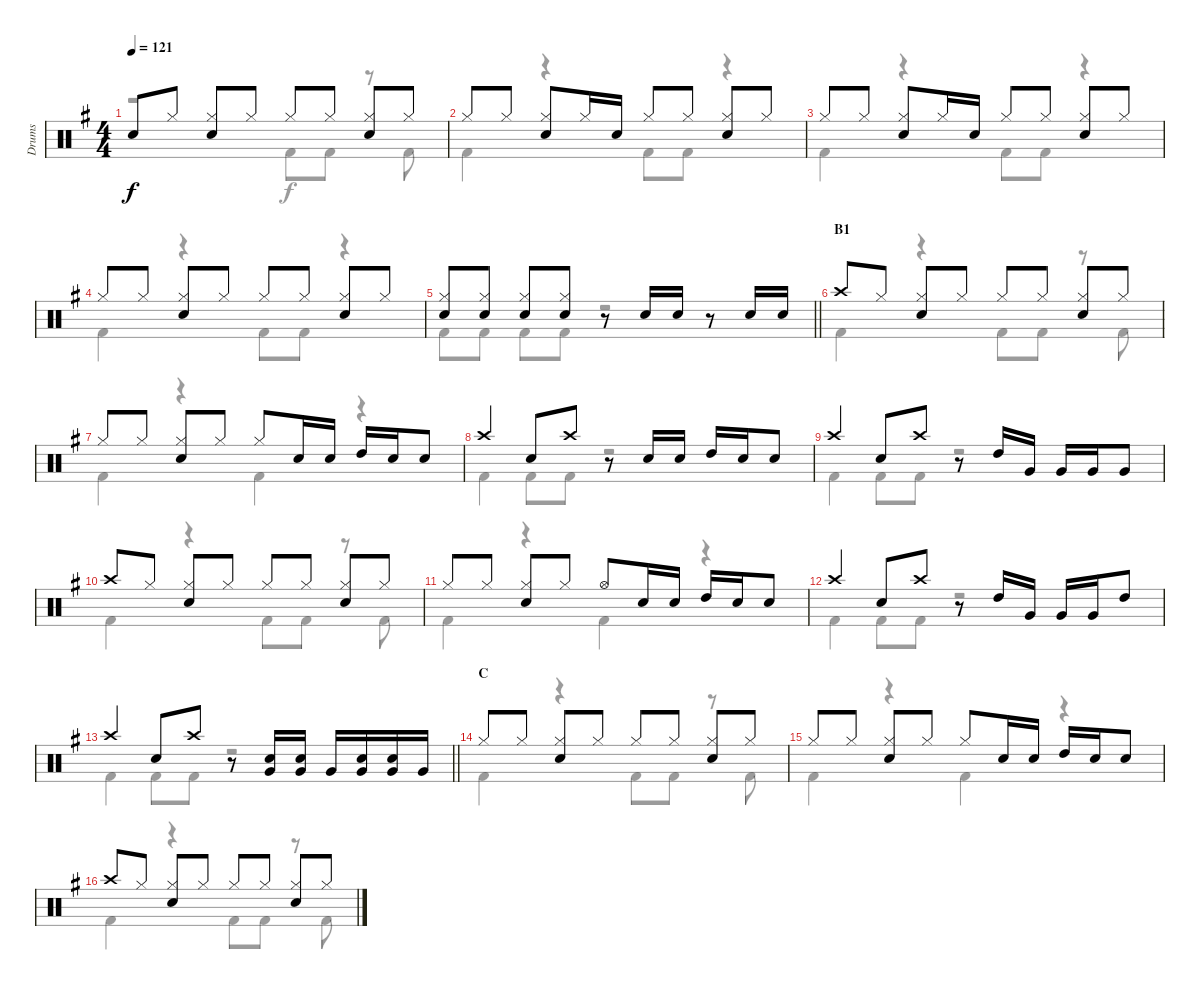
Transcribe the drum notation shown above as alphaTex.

\track ("Drums" "Drums") {instrument percussion}
\staff {score}
\articulation defaults
\voice
\ts (4 4)
\tempo 121
\clef neutral
\ks g "Snare (hit)"{t}.8{dy f} "Hi-Hat (closed)".8
("Hi-Hat (closed)" "Snare (hit) 2").8 "Hi-Hat (closed)".8 "Hi-Hat (closed)".8 "Hi-Hat (closed)".8 ("Hi-Hat (closed)" "Snare (hit) 2").8 "Hi-Hat (closed)".8 |
"Hi-Hat (closed)".8 "Hi-Hat (closed)".8 ("Hi-Hat (closed)" "Snare (hit) 2").8 "Hi-Hat (closed)".16 "Snare (hit) 2".16 "Hi-Hat (closed)".8 "Hi-Hat (closed)".8 ("Hi-Hat (closed)" "Snare (hit) 2").8 "Hi-Hat (closed)".8 |
"Hi-Hat (closed)".8 "Hi-Hat (closed)".8 ("Hi-Hat (closed)" "Snare (hit) 2").8 "Hi-Hat (closed)".16 "Snare (hit) 2".16 "Hi-Hat (closed)".8 "Hi-Hat (closed)".8 ("Hi-Hat (closed)" "Snare (hit) 2").8 "Hi-Hat (closed)".8 |
"Hi-Hat (closed)".8 "Hi-Hat (closed)".8 ("Hi-Hat (closed)" "Snare (hit) 2").8 "Hi-Hat (closed)".8 "Hi-Hat (closed)".8 "Hi-Hat (closed)".8 ("Hi-Hat (closed)" "Snare (hit) 2").8 "Hi-Hat (closed)".8 |
\barLineRight lightlight
("Hi-Hat (closed)" "Snare (hit) 2").8 ("Hi-Hat (closed)" "Snare (hit) 2").8 ("Hi-Hat (closed)" "Snare (hit) 2").8 ("Hi-Hat (closed)" "Snare (hit) 2").8 r.8 "Snare (hit) 2".16 "Snare (hit) 2".16 r.8 "Snare (hit) 2".16 "Snare (hit) 2".16 |
\section ("" "B1")
"Crash high (hit)".8 "Hi-Hat (closed)".8 ("Hi-Hat (closed)" "Snare (hit) 2").8 "Hi-Hat (closed)".8 "Hi-Hat (closed)".8 "Hi-Hat (closed)".8 ("Hi-Hat (closed)" "Snare (hit) 2").8 "Hi-Hat (closed)".8 |
"Hi-Hat (closed)".8 "Hi-Hat (closed)".8 ("Hi-Hat (closed)" "Snare (hit) 2").8 "Hi-Hat (closed)".8 "Hi-Hat (closed)".8 "Snare (hit) 2".16 "Snare (hit) 2".16 "High Tom (hit)".16 "Snare (hit) 2".16 "Snare (hit) 2".8 |
"Crash high (hit)".4 "Snare (hit) 2".8 "Crash high (hit)".8 r.8 "Snare (hit) 2".16 "Snare (hit) 2".16 "High Tom (hit)".16 "Snare (hit) 2".16 "Snare (hit) 2".8 |
"Crash high (hit)".4 "Snare (hit) 2".8 "Crash high (hit)".8 r.8 "High Tom (hit)".16 "Very Low Tom (hit)".16 "Very Low Tom (hit)".16 "Very Low Tom (hit)".16 "Very Low Tom (hit)".8 |
"Crash high (hit)".8 "Hi-Hat (closed)".8 ("Hi-Hat (closed)" "Snare (hit) 2").8 "Hi-Hat (closed)".8 "Hi-Hat (closed)".8 "Hi-Hat (closed)".8 ("Hi-Hat (closed)" "Snare (hit) 2").8 "Hi-Hat (closed)".8 |
"Hi-Hat (closed)".8 "Hi-Hat (closed)".8 ("Hi-Hat (closed)" "Snare (hit) 2").8 "Hi-Hat (closed)".8 "Hi-Hat (open)".8 "Snare (hit) 2".16 "Snare (hit) 2".16 "High Tom (hit)".16 "Snare (hit) 2".16 "Snare (hit) 2".8 |
"Crash high (hit)".4 "Snare (hit) 2".8 "Crash high (hit)".8 r.8 "High Tom (hit)".16 "Very Low Tom (hit)".16 "Very Low Tom (hit)".16 "Very Low Tom (hit)".16 "High Tom (hit)".8 |
\barLineRight lightlight "Crash high (hit)".4 "Snare (hit) 2".8 "Crash high (hit)".8
r.8 ("Snare (hit) 2" "Very Low Tom (hit)").16 ("Snare (hit) 2" "Very Low Tom (hit)").16 "Very Low Tom (hit)".16 ("Snare (hit) 2" "Very Low Tom (hit)").16 ("Snare (hit) 2" "Very Low Tom (hit)").16 "Very Low Tom (hit)".16 |
\section ("" "C")
"Hi-Hat (closed)".8 "Hi-Hat (closed)".8 ("Hi-Hat (closed)" "Snare (hit) 2").8 "Hi-Hat (closed)".8 "Hi-Hat (closed)".8 "Hi-Hat (closed)".8 ("Hi-Hat (closed)" "Snare (hit) 2").8 "Hi-Hat (closed)".8 |
"Hi-Hat (closed)".8 "Hi-Hat (closed)".8 ("Hi-Hat (closed)" "Snare (hit) 2").8 "Hi-Hat (closed)".8 "Hi-Hat (closed)".8 "Snare (hit) 2".16 "Snare (hit) 2".16 "High Tom (hit)".16 "Snare (hit) 2".16 "Snare (hit) 2".8 |
"Crash high (hit)".8 "Hi-Hat (closed)".8 ("Hi-Hat (closed)" "Snare (hit) 2").8 "Hi-Hat (closed)".8 "Hi-Hat (closed)".8 "Hi-Hat (closed)".8 ("Hi-Hat (closed)" "Snare (hit) 2").8 "Hi-Hat (closed)".8
\voice
\clef neutral
\ottava regular
\simile none
\ks g
r.2{dy f} "Kick (hit) 2".8 "Kick (hit) 2".8 r.8 "Kick (hit) 2".8 |
"Kick (hit) 2".4 r.4 "Kick (hit) 2".8 "Kick (hit) 2".8 r.4 |
"Kick (hit) 2".4 r.4 "Kick (hit) 2".8 "Kick (hit) 2".8 r.4 |
"Kick (hit) 2".4 r.4 "Kick (hit) 2".8 "Kick (hit) 2".8 r.4 |
\barLineRight lightlight "Kick (hit) 2".8 "Kick (hit) 2".8 "Kick (hit) 2".8 "Kick (hit) 2".8
r.2 |
"Kick (hit) 2".4 r.4 "Kick (hit) 2".8 "Kick (hit) 2".8 r.8 "Kick (hit) 2".8 |
"Kick (hit) 2".4 r.4 "Kick (hit) 2".4 r.4 |
"Kick (hit) 2".4 "Kick (hit) 2".8 "Kick (hit) 2".8 r.2 |
"Kick (hit) 2".4 "Kick (hit) 2".8 "Kick (hit) 2".8 r.2 |
"Kick (hit) 2".4 r.4 "Kick (hit) 2".8 "Kick (hit) 2".8 r.8 "Kick (hit) 2".8 |
"Kick (hit) 2".4 r.4 "Kick (hit) 2".4 r.4 |
"Kick (hit) 2".4 "Kick (hit) 2".8 "Kick (hit) 2".8 r.2 |
\barLineRight lightlight "Kick (hit) 2".4 "Kick (hit) 2".8 "Kick (hit) 2".8
r.2 |
"Kick (hit) 2".4 r.4 "Kick (hit) 2".8 "Kick (hit) 2".8 r.8 "Kick (hit) 2".8 |
"Kick (hit) 2".4 r.4 "Kick (hit) 2".4 r.4 |
"Kick (hit) 2".4 r.4 "Kick (hit) 2".8 "Kick (hit) 2".8 r.8 "Kick (hit) 2".8
